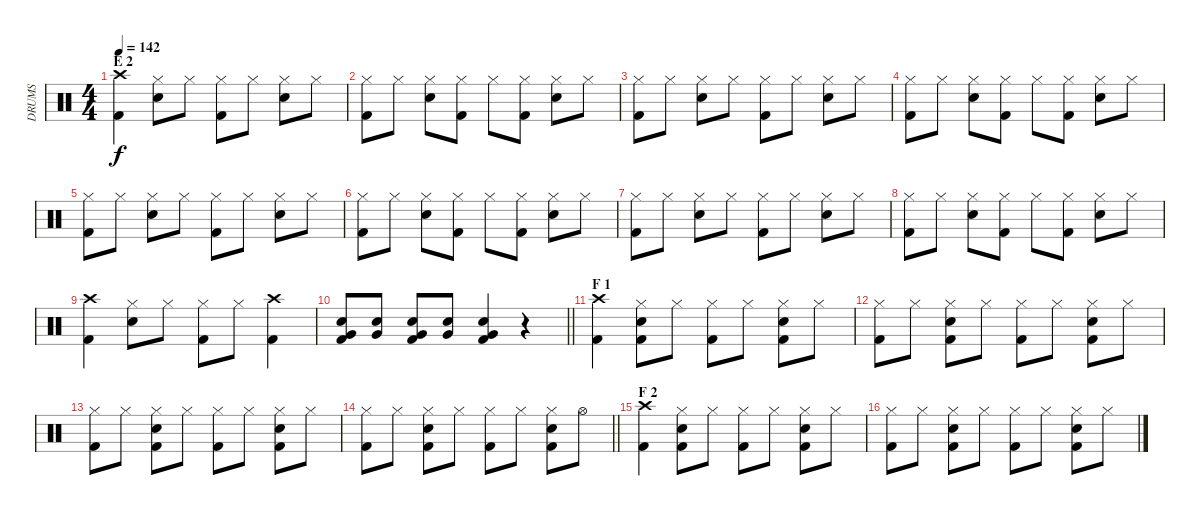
\track ("DRUMS" "DRUMS") {instrument percussion}
\staff {score}
\articulation defaults
\ts (4 4)
\section ("" "E 2")
\tempo 142
\clef neutral
\ks c
("Crash high (hit)" "Kick (hit) 2").4{dy f} ("Hi-Hat (closed)" "Snare (hit) 2").8 "Hi-Hat (closed)".8 ("Hi-Hat (closed)" "Kick (hit) 2").8 "Hi-Hat (closed)".8 ("Hi-Hat (closed)" "Snare (hit) 2").8 "Hi-Hat (closed)".8 |
("Hi-Hat (closed)" "Kick (hit) 2").8 "Hi-Hat (closed)".8 ("Hi-Hat (closed)" "Snare (hit) 2").8 ("Hi-Hat (closed)" "Kick (hit) 2").8 "Hi-Hat (closed)".8 ("Hi-Hat (closed)" "Kick (hit) 2").8 ("Hi-Hat (closed)" "Snare (hit) 2").8 "Hi-Hat (closed)".8 |
("Hi-Hat (closed)" "Kick (hit) 2").8 "Hi-Hat (closed)".8 ("Hi-Hat (closed)" "Snare (hit) 2").8 "Hi-Hat (closed)".8 ("Hi-Hat (closed)" "Kick (hit) 2").8 "Hi-Hat (closed)".8 ("Hi-Hat (closed)" "Snare (hit) 2").8 "Hi-Hat (closed)".8 |
("Hi-Hat (closed)" "Kick (hit) 2").8 "Hi-Hat (closed)".8 ("Hi-Hat (closed)" "Snare (hit) 2").8 ("Hi-Hat (closed)" "Kick (hit) 2").8 "Hi-Hat (closed)".8 ("Hi-Hat (closed)" "Kick (hit) 2").8 ("Hi-Hat (closed)" "Snare (hit) 2").8 "Hi-Hat (closed)".8 |
("Hi-Hat (closed)" "Kick (hit) 2").8 "Hi-Hat (closed)".8 ("Hi-Hat (closed)" "Snare (hit) 2").8 "Hi-Hat (closed)".8 ("Hi-Hat (closed)" "Kick (hit) 2").8 "Hi-Hat (closed)".8 ("Hi-Hat (closed)" "Snare (hit) 2").8 "Hi-Hat (closed)".8 |
("Hi-Hat (closed)" "Kick (hit) 2").8 "Hi-Hat (closed)".8 ("Hi-Hat (closed)" "Snare (hit) 2").8 ("Hi-Hat (closed)" "Kick (hit) 2").8 "Hi-Hat (closed)".8 ("Hi-Hat (closed)" "Kick (hit) 2").8 ("Hi-Hat (closed)" "Snare (hit) 2").8 "Hi-Hat (closed)".8 |
("Hi-Hat (closed)" "Kick (hit) 2").8 "Hi-Hat (closed)".8 ("Hi-Hat (closed)" "Snare (hit) 2").8 "Hi-Hat (closed)".8 ("Hi-Hat (closed)" "Kick (hit) 2").8 "Hi-Hat (closed)".8 ("Hi-Hat (closed)" "Snare (hit) 2").8 "Hi-Hat (closed)".8 |
("Hi-Hat (closed)" "Kick (hit) 2").8 "Hi-Hat (closed)".8 ("Hi-Hat (closed)" "Snare (hit) 2").8 ("Hi-Hat (closed)" "Kick (hit) 2").8 "Hi-Hat (closed)".8 ("Hi-Hat (closed)" "Kick (hit) 2").8 ("Hi-Hat (closed)" "Snare (hit) 2").8 "Hi-Hat (closed)".8 |
("Crash high (hit)" "Kick (hit) 2").4 ("Hi-Hat (closed)" "Snare (hit) 2").8 "Hi-Hat (closed)".8 ("Hi-Hat (closed)" "Kick (hit) 2").8 "Hi-Hat (closed)".8 ("Crash high (hit)" "Kick (hit) 2").4 |
\barLineRight lightlight
("Very Low Tom (hit)" "Snare (hit) 2" "Kick (hit) 2").8 ("Very Low Tom (hit)" "Snare (hit) 2").8 ("Very Low Tom (hit)" "Snare (hit) 2" "Kick (hit) 2").8 ("Very Low Tom (hit)" "Snare (hit) 2").8 ("Very Low Tom (hit)" "Snare (hit) 2" "Kick (hit) 2").4 r.4 |
\section ("" "F 1")
("Crash high (hit)" "Kick (hit) 2").4 ("Hi-Hat (closed)" "Kick (hit) 2" "Snare (hit) 2").8 "Hi-Hat (closed)".8 ("Hi-Hat (closed)" "Kick (hit) 2").8 "Hi-Hat (closed)".8 ("Hi-Hat (closed)" "Kick (hit) 2" "Snare (hit) 2").8 "Hi-Hat (closed)".8 |
("Hi-Hat (closed)" "Kick (hit) 2").8 "Hi-Hat (closed)".8 ("Hi-Hat (closed)" "Kick (hit) 2" "Snare (hit) 2").8 "Hi-Hat (closed)".8 ("Hi-Hat (closed)" "Kick (hit) 2").8 "Hi-Hat (closed)".8 ("Hi-Hat (closed)" "Kick (hit) 2" "Snare (hit) 2").8 "Hi-Hat (closed)".8 |
("Hi-Hat (closed)" "Kick (hit) 2").8 "Hi-Hat (closed)".8 ("Hi-Hat (closed)" "Kick (hit) 2" "Snare (hit) 2").8 "Hi-Hat (closed)".8 ("Hi-Hat (closed)" "Kick (hit) 2").8 "Hi-Hat (closed)".8 ("Hi-Hat (closed)" "Kick (hit) 2" "Snare (hit) 2").8 "Hi-Hat (closed)".8 |
\barLineRight lightlight
("Hi-Hat (closed)" "Kick (hit) 2").8 "Hi-Hat (closed)".8 ("Hi-Hat (closed)" "Kick (hit) 2" "Snare (hit) 2").8 "Hi-Hat (closed)".8 ("Hi-Hat (closed)" "Kick (hit) 2").8 "Hi-Hat (closed)".8 ("Hi-Hat (closed)" "Kick (hit) 2" "Snare (hit) 2").8 "Hi-Hat (open)".8 |
\section ("" "F 2")
("Crash high (hit)" "Kick (hit) 2").4 ("Hi-Hat (closed)" "Kick (hit) 2" "Snare (hit) 2").8 "Hi-Hat (closed)".8 ("Hi-Hat (closed)" "Kick (hit) 2").8 "Hi-Hat (closed)".8 ("Hi-Hat (closed)" "Kick (hit) 2" "Snare (hit) 2").8 "Hi-Hat (closed)".8 |
("Hi-Hat (closed)" "Kick (hit) 2").8 "Hi-Hat (closed)".8 ("Hi-Hat (closed)" "Kick (hit) 2" "Snare (hit) 2").8 "Hi-Hat (closed)".8 ("Hi-Hat (closed)" "Kick (hit) 2").8 "Hi-Hat (closed)".8 ("Hi-Hat (closed)" "Kick (hit) 2" "Snare (hit) 2").8 "Hi-Hat (closed)".8
